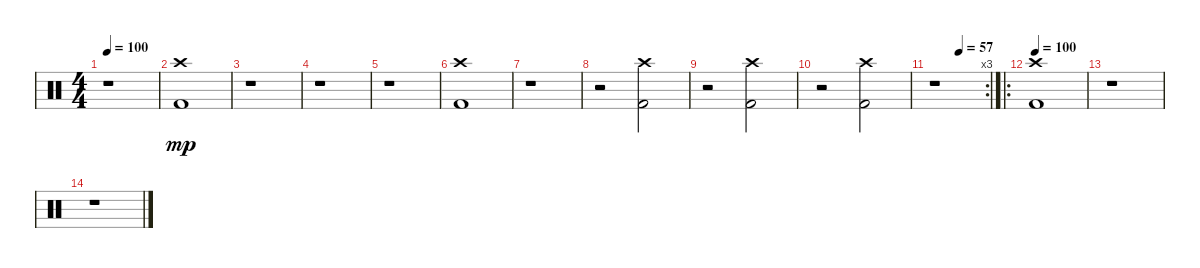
\track "" {instrument percussion}
\staff {score}
\articulation defaults
\ts (4 4)
\tempo 100
\clef neutral
\ks c
r.1{dy mp} |
("Crash high (hit)" "Kick (hit) 2").1 |
r.1 |
r.1 |
r.1 |
("Crash high (hit)" "Kick (hit) 2").1 |
r.1 |
r.2 ("Crash high (hit)" "Kick (hit) 2").2 |
r.2 ("Crash high (hit)" "Kick (hit) 2").2 |
r.2 ("Crash high (hit)" "Kick (hit) 2").2 |
\rc 3
\tempo (57 0.5)
r.1 |
\ro
\tempo 100
("Crash high (hit)" "Kick (hit) 2").1{volume 0} |
r.1 |
r.1
